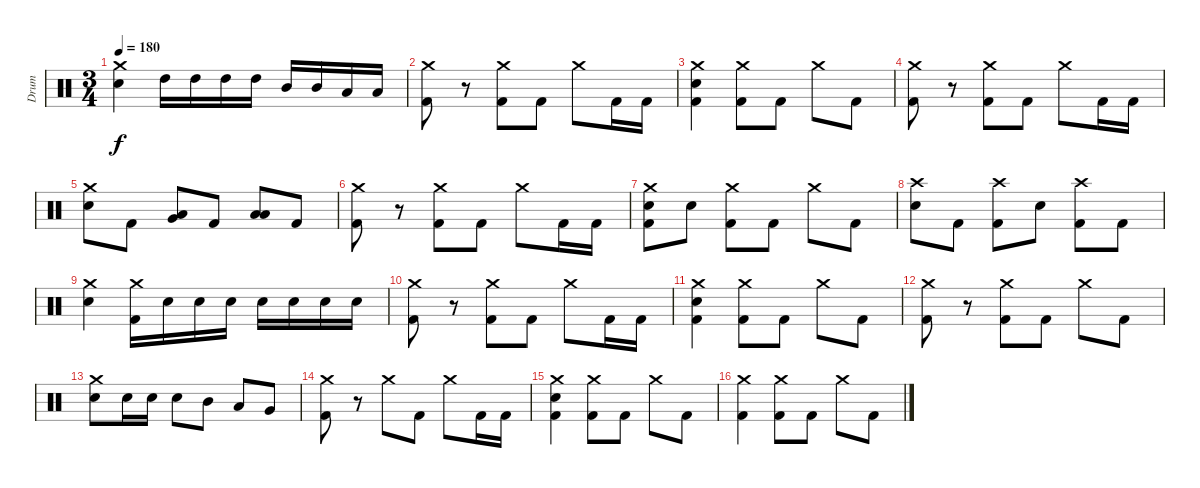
\track ("Drum" "Drum") {instrument percussion}
\staff {score}
\articulation defaults
\ts (3 4)
\tempo 180
\clef neutral
\ks c
("Crash medium (hit)" "Snare (hit) 2").4{dy f} "High Tom (hit)".16 "High Tom (hit)".16 "High Tom (hit)".16 "High Tom (hit)".16 "Mid Tom (hit)".16 "Mid Tom (hit)".16 "Low Tom (hit)".16 "Low Tom (hit)".16 |
("Crash medium (hit)" "Kick (hit) 2").8 r.8 ("Crash medium (hit)" "Kick (hit) 2").8 "Kick (hit) 2".8 "Crash medium (hit)".8 "Kick (hit) 2".16 "Kick (hit) 2".16 |
("Crash medium (hit)" "Snare (hit) 2" "Kick (hit) 2").4 ("Crash medium (hit)" "Kick (hit) 2").8 "Kick (hit) 2".8 "Crash medium (hit)".8 "Kick (hit) 2".8 |
("Crash medium (hit)" "Kick (hit) 2").8 r.8 ("Crash medium (hit)" "Kick (hit) 2").8 "Kick (hit) 2".8 "Crash medium (hit)".8 "Kick (hit) 2".16 "Kick (hit) 2".16 |
("Crash medium (hit)" "Snare (hit) 2").8 "Kick (hit) 2".8 ("Low Tom (hit)" "Very Low Tom (hit)").8 "Kick (hit) 2".8 ("Low Tom (hit)" "Low Floor Tom (hit)").8 "Kick (hit) 2".8 |
("Crash medium (hit)" "Kick (hit) 2").8 r.8 ("Crash medium (hit)" "Kick (hit) 2").8 "Kick (hit) 2".8 "Crash medium (hit)".8 "Kick (hit) 2".16 "Kick (hit) 2".16 |
("Crash medium (hit)" "Snare (hit) 2" "Kick (hit) 2").8 "Snare (hit) 2".8 ("Crash medium (hit)" "Kick (hit) 2").8 "Kick (hit) 2".8 "Crash medium (hit)".8 "Kick (hit) 2".8 |
("Crash high (hit)" "Snare (hit) 2").8 "Kick (hit) 2".8 ("Crash high (hit)" "Kick (hit) 2").8 "Snare (hit) 2".8 ("Crash high (hit)" "Kick (hit) 2").8 "Kick (hit) 2".8 |
("Crash medium (hit)" "Snare (hit) 2").4 ("Crash medium (hit)" "Kick (hit) 2").16 "Snare (hit) 2".16 "Snare (hit) 2".16 "Snare (hit) 2".16 "Snare (hit) 2".16 "Snare (hit) 2".16 "Snare (hit) 2".16 "Snare (hit) 2".16 |
("Crash medium (hit)" "Kick (hit) 2").8 r.8 ("Crash medium (hit)" "Kick (hit) 2").8 "Kick (hit) 2".8 "Crash medium (hit)".8 "Kick (hit) 2".16 "Kick (hit) 2".16 |
("Crash medium (hit)" "Snare (hit) 2" "Kick (hit) 2").4 ("Crash medium (hit)" "Kick (hit) 2").8 "Kick (hit) 2".8 "Crash medium (hit)".8 "Kick (hit) 2".8 |
("Crash medium (hit)" "Kick (hit) 2").8 r.8 ("Crash medium (hit)" "Kick (hit) 2").8 "Kick (hit) 2".8 "Crash medium (hit)".8 "Kick (hit) 2".8 |
("Crash medium (hit)" "Snare (hit) 2").8 "Snare (hit) 2".16 "Snare (hit) 2".16 "Snare (hit) 2".8 "Mid Tom (hit)".8 "Low Tom (hit)".8 "Very Low Tom (hit)".8 |
("Crash medium (hit)" "Kick (hit) 2").8 r.8 "Crash medium (hit)".8 "Kick (hit) 2".8 "Crash medium (hit)".8 "Kick (hit) 2".16 "Kick (hit) 2".16 |
("Crash medium (hit)" "Snare (hit) 2" "Kick (hit) 2").4 ("Crash medium (hit)" "Kick (hit) 2").8 "Kick (hit) 2".8 "Crash medium (hit)".8 "Kick (hit) 2".8 |
("Crash medium (hit)" "Kick (hit) 2").4 ("Crash medium (hit)" "Kick (hit) 2").8 "Kick (hit) 2".8 "Crash medium (hit)".8 "Kick (hit) 2".8
